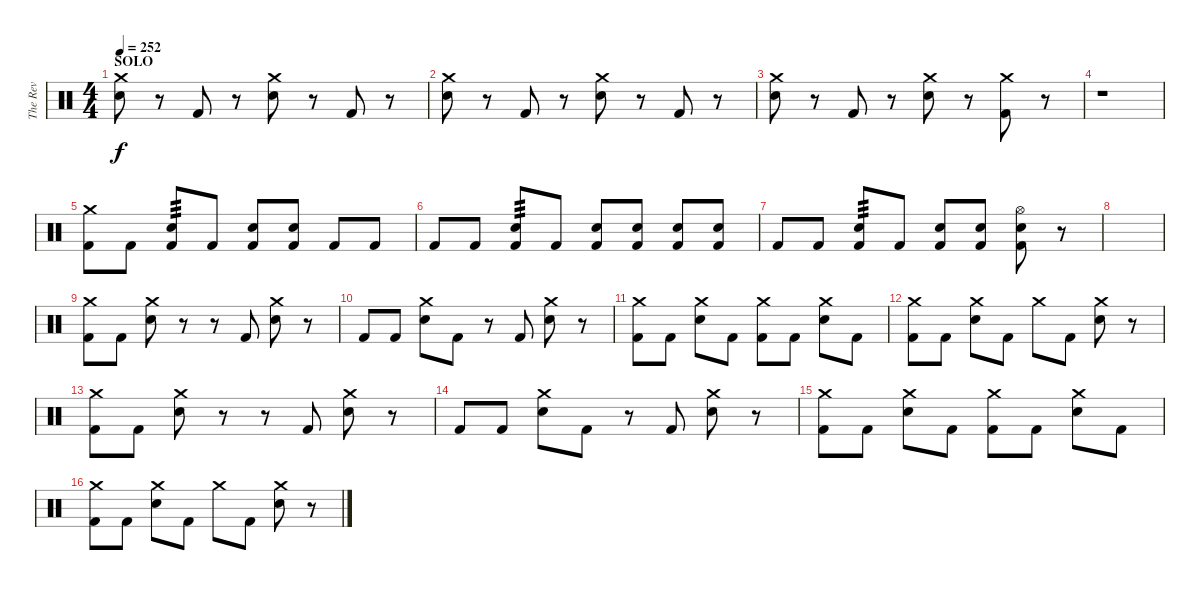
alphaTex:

\track ("The Rev" "The Rev") {instrument percussion}
\staff {score}
\articulation defaults
\ts (4 4)
\section ("" "SOLO")
\tempo 252
\clef neutral
\ks c
("Crash medium (hit)" "Electric Snare (hit)").8{dy f} r.8 "Kick (hit) 2".8 r.8 ("Crash medium (hit)" "Electric Snare (hit)").8 r.8 "Kick (hit) 2".8 r.8 |
("Crash medium (hit)" "Electric Snare (hit)").8 r.8 "Kick (hit) 2".8 r.8 ("Crash medium (hit)" "Electric Snare (hit)").8 r.8 "Kick (hit) 2".8 r.8 |
("Crash medium (hit)" "Electric Snare (hit)").8 r.8 "Kick (hit) 2".8 r.8 ("Crash medium (hit)" "Electric Snare (hit)").8 r.8 ("Crash medium (hit)" "Kick (hit) 2").8 r.8 |
r.1 |
("Crash medium (hit)" "Kick (hit) 2").8 "Kick (hit) 2".8 ("Electric Snare (hit)" "Kick (hit) 2").8{tp 3} "Kick (hit) 2".8 ("Electric Snare (hit)" "Kick (hit) 2").8 ("Electric Snare (hit)" "Kick (hit) 2").8 "Kick (hit) 2".8 "Kick (hit) 2".8 |
"Kick (hit) 2".8 "Kick (hit) 2".8 ("Electric Snare (hit)" "Kick (hit) 2").8{tp 3} "Kick (hit) 2".8 ("Electric Snare (hit)" "Kick (hit) 2").8 ("Electric Snare (hit)" "Kick (hit) 2").8 ("Electric Snare (hit)" "Kick (hit) 2").8 ("Electric Snare (hit)" "Kick (hit) 2").8 |
"Kick (hit) 2".8 "Kick (hit) 2".8 ("Electric Snare (hit)" "Kick (hit) 2").8{tp 3} "Kick (hit) 2".8 ("Electric Snare (hit)" "Kick (hit) 2").8 ("Electric Snare (hit)" "Kick (hit) 2").8 ("Hi-Hat (open)" "Electric Snare (hit)" "Kick (hit) 2").8 r.8 |
|
("Crash medium (hit)" "Kick (hit) 2").8 "Kick (hit) 2".8 ("Crash medium (hit)" "Electric Snare (hit)").8 r.8 r.8 "Kick (hit) 2".8 ("Crash medium (hit)" "Electric Snare (hit)").8 r.8 |
"Kick (hit) 2".8 "Kick (hit) 2".8 ("Crash medium (hit)" "Electric Snare (hit)").8 "Kick (hit) 2".8 r.8 "Kick (hit) 2".8 ("Crash medium (hit)" "Electric Snare (hit)").8 r.8 |
("Crash medium (hit)" "Kick (hit) 2").8 "Kick (hit) 2".8 ("Crash medium (hit)" "Electric Snare (hit)").8 "Kick (hit) 2".8 ("Crash medium (hit)" "Kick (hit) 2").8 "Kick (hit) 2".8 ("Crash medium (hit)" "Electric Snare (hit)").8 "Kick (hit) 2".8 |
("Crash medium (hit)" "Kick (hit) 2").8 "Kick (hit) 2".8 ("Crash medium (hit)" "Electric Snare (hit)").8 "Kick (hit) 2".8 "Crash medium (hit)".8 "Kick (hit) 2".8 ("Crash medium (hit)" "Electric Snare (hit)").8 r.8 |
("Crash medium (hit)" "Kick (hit) 2").8 "Kick (hit) 2".8 ("Crash medium (hit)" "Electric Snare (hit)").8 r.8 r.8 "Kick (hit) 2".8 ("Crash medium (hit)" "Electric Snare (hit)").8 r.8 |
"Kick (hit) 2".8 "Kick (hit) 2".8 ("Crash medium (hit)" "Electric Snare (hit)").8 "Kick (hit) 2".8 r.8 "Kick (hit) 2".8 ("Crash medium (hit)" "Electric Snare (hit)").8 r.8 |
("Crash medium (hit)" "Kick (hit) 2").8 "Kick (hit) 2".8 ("Crash medium (hit)" "Electric Snare (hit)").8 "Kick (hit) 2".8 ("Crash medium (hit)" "Kick (hit) 2").8 "Kick (hit) 2".8 ("Crash medium (hit)" "Electric Snare (hit)").8 "Kick (hit) 2".8 |
("Crash medium (hit)" "Kick (hit) 2").8 "Kick (hit) 2".8 ("Crash medium (hit)" "Electric Snare (hit)").8 "Kick (hit) 2".8 "Crash medium (hit)".8 "Kick (hit) 2".8 ("Crash medium (hit)" "Electric Snare (hit)").8 r.8
